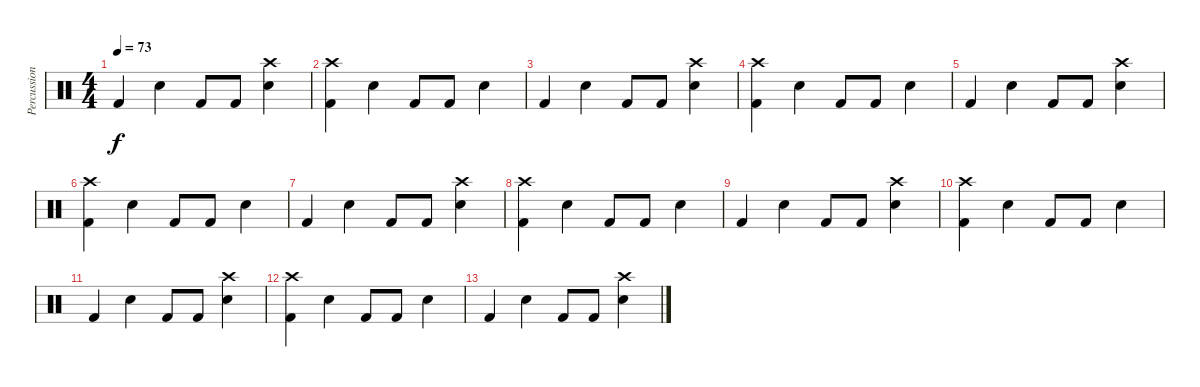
\track ("Percussion" "Percussion") {instrument percussion}
\staff {score}
\articulation defaults
\ts (4 4)
\tempo 73
\clef neutral
\ks c "Kick (hit) 2".4{dy f} "Snare (hit) 2".4 "Kick (hit) 2".8 "Kick (hit) 2".8
("Snare (hit) 2" "Crash high (hit)").4 |
("Kick (hit) 2" "Crash high (hit)").4 "Snare (hit) 2".4 "Kick (hit) 2".8 "Kick (hit) 2".8 "Snare (hit) 2".4 |
"Kick (hit) 2".4 "Snare (hit) 2".4 "Kick (hit) 2".8 "Kick (hit) 2".8 ("Snare (hit) 2" "Crash high (hit)").4 |
("Kick (hit) 2" "Crash high (hit)").4 "Snare (hit) 2".4 "Kick (hit) 2".8 "Kick (hit) 2".8 "Snare (hit) 2".4 |
"Kick (hit) 2".4 "Snare (hit) 2".4 "Kick (hit) 2".8 "Kick (hit) 2".8 ("Snare (hit) 2" "Crash high (hit)").4 |
("Kick (hit) 2" "Crash high (hit)").4 "Snare (hit) 2".4 "Kick (hit) 2".8 "Kick (hit) 2".8 "Snare (hit) 2".4 |
"Kick (hit) 2".4 "Snare (hit) 2".4 "Kick (hit) 2".8 "Kick (hit) 2".8 ("Snare (hit) 2" "Crash high (hit)").4 |
("Kick (hit) 2" "Crash high (hit)").4 "Snare (hit) 2".4 "Kick (hit) 2".8 "Kick (hit) 2".8 "Snare (hit) 2".4 |
"Kick (hit) 2".4 "Snare (hit) 2".4 "Kick (hit) 2".8 "Kick (hit) 2".8 ("Snare (hit) 2" "Crash high (hit)").4 |
("Kick (hit) 2" "Crash high (hit)").4 "Snare (hit) 2".4 "Kick (hit) 2".8 "Kick (hit) 2".8 "Snare (hit) 2".4 |
"Kick (hit) 2".4 "Snare (hit) 2".4 "Kick (hit) 2".8 "Kick (hit) 2".8 ("Snare (hit) 2" "Crash high (hit)").4 |
("Kick (hit) 2" "Crash high (hit)").4 "Snare (hit) 2".4 "Kick (hit) 2".8 "Kick (hit) 2".8 "Snare (hit) 2".4 |
"Kick (hit) 2".4 "Snare (hit) 2".4 "Kick (hit) 2".8 "Kick (hit) 2".8 ("Snare (hit) 2" "Crash high (hit)").4
